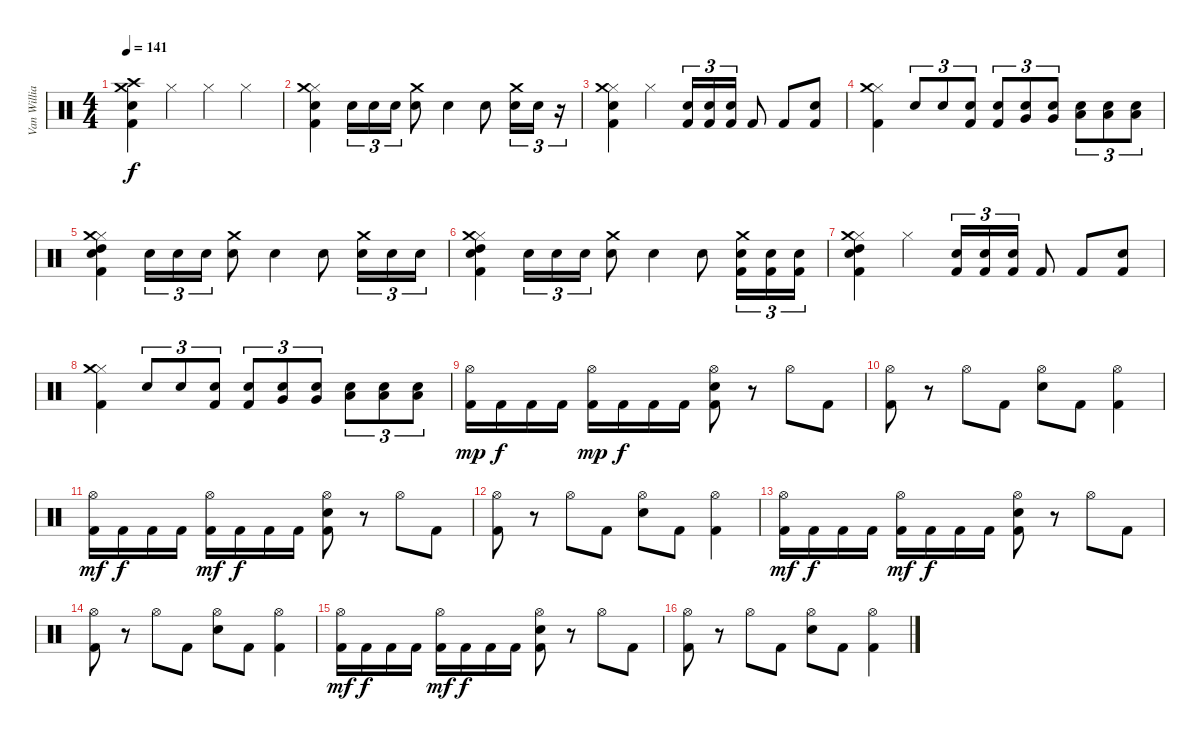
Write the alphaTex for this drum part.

\track ("Van Williams" "Van Willia") {instrument percussion}
\staff {score}
\articulation defaults
\ts (4 4)
\tempo 141
\clef neutral
\ks c
("Crash medium (hit)" "Crash high (hit)" "Electric Snare (hit)" "Kick (hit) 2").4{dy f} "Hi-Hat (closed)".4 "Hi-Hat (closed)".4 "Hi-Hat (closed)".4 |
("Hi-Hat (closed)" "Crash medium (hit)" "Electric Snare (hit)" "Kick (hit) 2").4 "Electric Snare (hit)".16{tu (3 2)} "Electric Snare (hit)".16{tu (3 2)} "Electric Snare (hit)".16{tu (3 2)} ("Crash medium (hit)" "Electric Snare (hit)").8 "Electric Snare (hit)".4 "Electric Snare (hit)".8 ("Crash medium (hit)" "Electric Snare (hit)").16{tu (3 2)} "Electric Snare (hit)".16{tu (3 2)} r.16{tu (3 2)} |
("Hi-Hat (closed)" "Crash medium (hit)" "Electric Snare (hit)" "Kick (hit) 2").4 "Hi-Hat (closed)".4 ("Electric Snare (hit)" "Kick (hit) 2").16{tu (3 2)} ("Electric Snare (hit)" "Kick (hit) 2").16{tu (3 2)} ("Electric Snare (hit)" "Kick (hit) 2").16{tu (3 2)} "Kick (hit) 2".8 "Kick (hit) 2".8 ("Electric Snare (hit)" "Kick (hit) 2").8 |
("Hi-Hat (closed)" "Crash medium (hit)" "Kick (hit) 2").4 "Electric Snare (hit)".8{tu (3 2)} "Electric Snare (hit)".8{tu (3 2)} ("Electric Snare (hit)" "Kick (hit) 2").8{tu (3 2)} ("Electric Snare (hit)" "Kick (hit) 2").8{tu (3 2)} ("Electric Snare (hit)" "Very Low Tom (hit)").8{tu (3 2)} ("Electric Snare (hit)" "Very Low Tom (hit)").8{tu (3 2)} ("Electric Snare (hit)" "Low Floor Tom (hit)").8{tu (3 2)} ("Electric Snare (hit)" "Low Floor Tom (hit)").8{tu (3 2)} ("Electric Snare (hit)" "Low Floor Tom (hit)").8{tu (3 2)} |
("Hi-Hat (closed)" "Crash medium (hit)" "Electric Snare (hit)" "High Tom (hit)" "Kick (hit) 2").4 "Electric Snare (hit)".16{tu (3 2)} "Electric Snare (hit)".16{tu (3 2)} "Electric Snare (hit)".16{tu (3 2)} ("Crash medium (hit)" "Electric Snare (hit)").8 "Electric Snare (hit)".4 "Electric Snare (hit)".8 ("Crash medium (hit)" "Electric Snare (hit)").16{tu (3 2)} "Electric Snare (hit)".16{tu (3 2)} "Electric Snare (hit)".16{tu (3 2)} |
("Hi-Hat (closed)" "Crash medium (hit)" "Electric Snare (hit)" "High Tom (hit)" "Kick (hit) 2").4 "Electric Snare (hit)".16{tu (3 2)} "Electric Snare (hit)".16{tu (3 2)} "Electric Snare (hit)".16{tu (3 2)} ("Crash medium (hit)" "Electric Snare (hit)").8 "Electric Snare (hit)".4 "Electric Snare (hit)".8 ("Crash medium (hit)" "Electric Snare (hit)" "Kick (hit) 2").16{tu (3 2)} ("Electric Snare (hit)" "Kick (hit) 2").16{tu (3 2)} ("Electric Snare (hit)" "Kick (hit) 2").16{tu (3 2)} |
("Hi-Hat (closed)" "Crash medium (hit)" "Electric Snare (hit)" "High Tom (hit)" "Kick (hit) 2").4 "Hi-Hat (closed)".4 ("Electric Snare (hit)" "Kick (hit) 2").16{tu (3 2)} ("Electric Snare (hit)" "Kick (hit) 2").16{tu (3 2)} ("Electric Snare (hit)" "Kick (hit) 2").16{tu (3 2)} "Kick (hit) 2".8 "Kick (hit) 2".8 ("Electric Snare (hit)" "Kick (hit) 2").8 |
("Hi-Hat (closed)" "Crash medium (hit)" "Kick (hit) 2").4 "Electric Snare (hit)".8{tu (3 2)} "Electric Snare (hit)".8{tu (3 2)} ("Electric Snare (hit)" "Kick (hit) 2").8{tu (3 2)} ("Electric Snare (hit)" "Kick (hit) 2").8{tu (3 2)} ("Electric Snare (hit)" "Very Low Tom (hit)").8{tu (3 2)} ("Electric Snare (hit)" "Very Low Tom (hit)").8{tu (3 2)} ("Electric Snare (hit)" "Low Floor Tom (hit)").8{tu (3 2)} ("Electric Snare (hit)" "Low Floor Tom (hit)").8{tu (3 2)} ("Electric Snare (hit)" "Low Floor Tom (hit)").8{tu (3 2)} |
("Hi-Hat (open)" "Kick (hit) 2").16{dy mp} "Kick (hit) 2".16{dy f} "Kick (hit) 2".16 "Kick (hit) 2".16 ("Hi-Hat (open)" "Kick (hit) 2").16{dy mp} "Kick (hit) 2".16{dy f} "Kick (hit) 2".16 "Kick (hit) 2".16 ("Hi-Hat (open)" "Electric Snare (hit)" "Kick (hit) 2").8 r.8 "Hi-Hat (open)".8 "Kick (hit) 2".8 |
("Hi-Hat (open)" "Kick (hit) 2").8 r.8 "Hi-Hat (open)".8 "Kick (hit) 2".8 ("Hi-Hat (open)" "Electric Snare (hit)").8 "Kick (hit) 2".8 ("Hi-Hat (open)" "Kick (hit) 2").4 |
("Hi-Hat (open)" "Kick (hit) 2").16{dy mf} "Kick (hit) 2".16{dy f} "Kick (hit) 2".16 "Kick (hit) 2".16 ("Hi-Hat (open)" "Kick (hit) 2").16{dy mf} "Kick (hit) 2".16{dy f} "Kick (hit) 2".16 "Kick (hit) 2".16 ("Hi-Hat (open)" "Electric Snare (hit)" "Kick (hit) 2").8 r.8 "Hi-Hat (open)".8 "Kick (hit) 2".8 |
("Hi-Hat (open)" "Kick (hit) 2").8 r.8 "Hi-Hat (open)".8 "Kick (hit) 2".8 ("Hi-Hat (open)" "Electric Snare (hit)").8 "Kick (hit) 2".8 ("Hi-Hat (open)" "Kick (hit) 2").4 |
("Hi-Hat (open)" "Kick (hit) 2").16{dy mf} "Kick (hit) 2".16{dy f} "Kick (hit) 2".16 "Kick (hit) 2".16 ("Hi-Hat (open)" "Kick (hit) 2").16{dy mf} "Kick (hit) 2".16{dy f} "Kick (hit) 2".16 "Kick (hit) 2".16 ("Hi-Hat (open)" "Electric Snare (hit)" "Kick (hit) 2").8 r.8 "Hi-Hat (open)".8 "Kick (hit) 2".8 |
("Hi-Hat (open)" "Kick (hit) 2").8 r.8 "Hi-Hat (open)".8 "Kick (hit) 2".8 ("Hi-Hat (open)" "Electric Snare (hit)").8 "Kick (hit) 2".8 ("Hi-Hat (open)" "Kick (hit) 2").4 |
("Hi-Hat (open)" "Kick (hit) 2").16{dy mf} "Kick (hit) 2".16{dy f} "Kick (hit) 2".16 "Kick (hit) 2".16 ("Hi-Hat (open)" "Kick (hit) 2").16{dy mf} "Kick (hit) 2".16{dy f} "Kick (hit) 2".16 "Kick (hit) 2".16 ("Hi-Hat (open)" "Electric Snare (hit)" "Kick (hit) 2").8 r.8 "Hi-Hat (open)".8 "Kick (hit) 2".8 |
("Hi-Hat (open)" "Kick (hit) 2").8 r.8 "Hi-Hat (open)".8 "Kick (hit) 2".8 ("Hi-Hat (open)" "Electric Snare (hit)").8 "Kick (hit) 2".8 ("Hi-Hat (open)" "Kick (hit) 2").4
